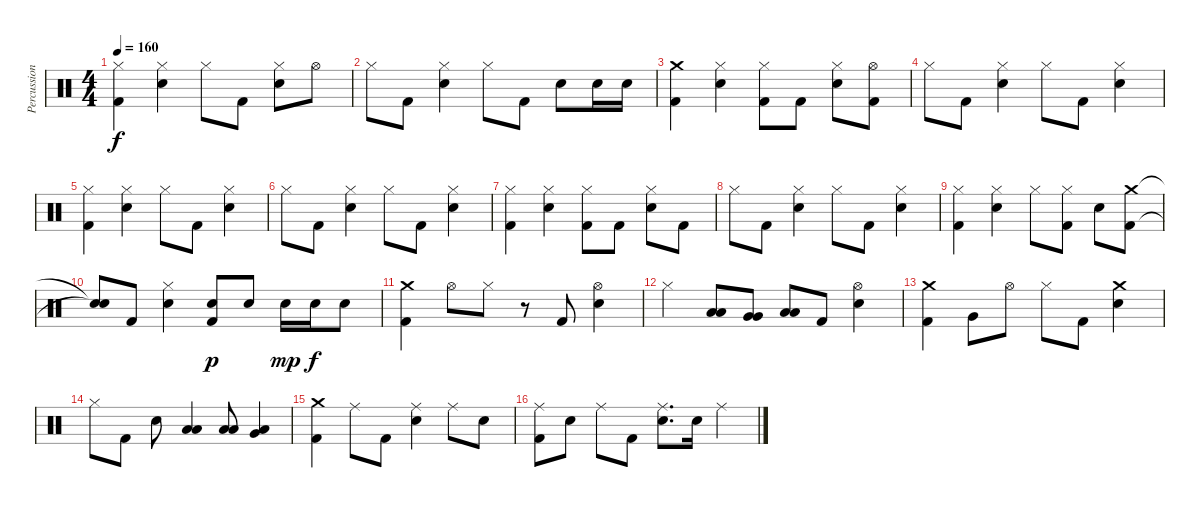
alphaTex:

\track ("Percussion" "Percussion") {instrument percussion}
\staff {score}
\articulation defaults
\ts (4 4)
\tempo 160
\clef neutral
\ks c
("Hi-Hat (closed)" "Kick (hit) 2").4{dy f} ("Hi-Hat (closed)" "Electric Snare (hit)").4 "Hi-Hat (closed)".8 "Kick (hit) 2".8 ("Hi-Hat (closed)" "Electric Snare (hit)").8 "Hi-Hat (open)".8 |
"Hi-Hat (closed)".8 "Kick (hit) 2".8 ("Hi-Hat (closed)" "Electric Snare (hit)").4 "Hi-Hat (closed)".8 "Kick (hit) 2".8 "Electric Snare (hit)".8 "Electric Snare (hit)".16 "Electric Snare (hit)".16 |
("Crash medium (hit)" "Kick (hit) 2").4 ("Hi-Hat (closed)" "Electric Snare (hit)").4 ("Hi-Hat (closed)" "Kick (hit) 2").8 "Kick (hit) 2".8 ("Hi-Hat (closed)" "Electric Snare (hit)").8 ("Hi-Hat (open)" "Kick (hit) 2").8 |
"Hi-Hat (closed)".8 "Kick (hit) 2".8 ("Hi-Hat (closed)" "Electric Snare (hit)").4 "Hi-Hat (closed)".8 "Kick (hit) 2".8 ("Hi-Hat (closed)" "Electric Snare (hit)").4 |
("Hi-Hat (closed)" "Kick (hit) 2").4 ("Hi-Hat (closed)" "Electric Snare (hit)").4 "Hi-Hat (closed)".8 "Kick (hit) 2".8 ("Hi-Hat (closed)" "Electric Snare (hit)").4 |
"Hi-Hat (closed)".8 "Kick (hit) 2".8 ("Hi-Hat (closed)" "Electric Snare (hit)").4 "Hi-Hat (closed)".8 "Kick (hit) 2".8 ("Hi-Hat (closed)" "Electric Snare (hit)").4 |
("Hi-Hat (closed)" "Kick (hit) 2").4 ("Hi-Hat (closed)" "Electric Snare (hit)").4 ("Hi-Hat (closed)" "Kick (hit) 2").8 "Kick (hit) 2".8 ("Hi-Hat (closed)" "Electric Snare (hit)").8 "Kick (hit) 2".8 |
"Hi-Hat (closed)".8 "Kick (hit) 2".8 ("Hi-Hat (closed)" "Electric Snare (hit)").4 "Hi-Hat (closed)".8 "Kick (hit) 2".8 ("Hi-Hat (closed)" "Electric Snare (hit)").4 |
("Hi-Hat (closed)" "Kick (hit) 2").4 ("Hi-Hat (closed)" "Electric Snare (hit)").4 "Hi-Hat (closed)".8 ("Hi-Hat (closed)" "Kick (hit) 2").8 "Electric Snare (hit)".8 ("Crash medium (hit)" "Kick (hit) 2").8 |
("Snare (hit)"{t} "Snare (hit)"{t}).8 "Kick (hit) 2".8 ("Hi-Hat (closed)" "Electric Snare (hit)").4 ("Electric Snare (hit)" "Kick (hit) 2").8{dy p} "Electric Snare (hit)".8 "Electric Snare (hit)".16{dy mp} "Electric Snare (hit)".16{dy f} "Electric Snare (hit)".8 |
("Crash medium (hit)" "Kick (hit) 2").4 "Hi-Hat (open)".8 "Hi-Hat (closed)".8 r.8 "Kick (hit) 2".8 ("Hi-Hat (open)" "Electric Snare (hit)").4 |
"Hi-Hat (closed)".4 ("Low Tom (hit)" "Low Tom (hit)").8 ("Very Low Tom (hit)" "Very Low Tom (hit)").8 ("Low Floor Tom (hit)" "Low Floor Tom (hit)").8 "Kick (hit) 2".8 ("Hi-Hat (open)" "Electric Snare (hit)").4 |
("Crash medium (hit)" "Kick (hit) 2").4 "Very Low Tom (hit)".8 "Hi-Hat (open)".8 "Hi-Hat (closed)".8 "Kick (hit) 2".8 ("Crash medium (hit)" "Electric Snare (hit)").4 |
"Hi-Hat (closed)".8 "Kick (hit) 2".8 "Electric Snare (hit)".8 ("Low Tom (hit)" "Low Tom (hit)").4 ("Low Tom (hit)" "Low Tom (hit)").8 ("Very Low Tom (hit)" "Low Floor Tom (hit)").4 |
("Crash medium (hit)" "Kick (hit) 2").4 "Ride (middle)".8 "Kick (hit) 2".8 ("Ride (middle)" "Electric Snare (hit)").4 "Ride (middle)".8 "Electric Snare (hit)".8 |
("Ride (middle)" "Kick (hit) 2").8 "Electric Snare (hit)".8 "Ride (middle)".8 "Kick (hit) 2".8 ("Ride (middle)" "Electric Snare (hit)").8{d} "Electric Snare (hit)".16 "Ride (middle)".4
